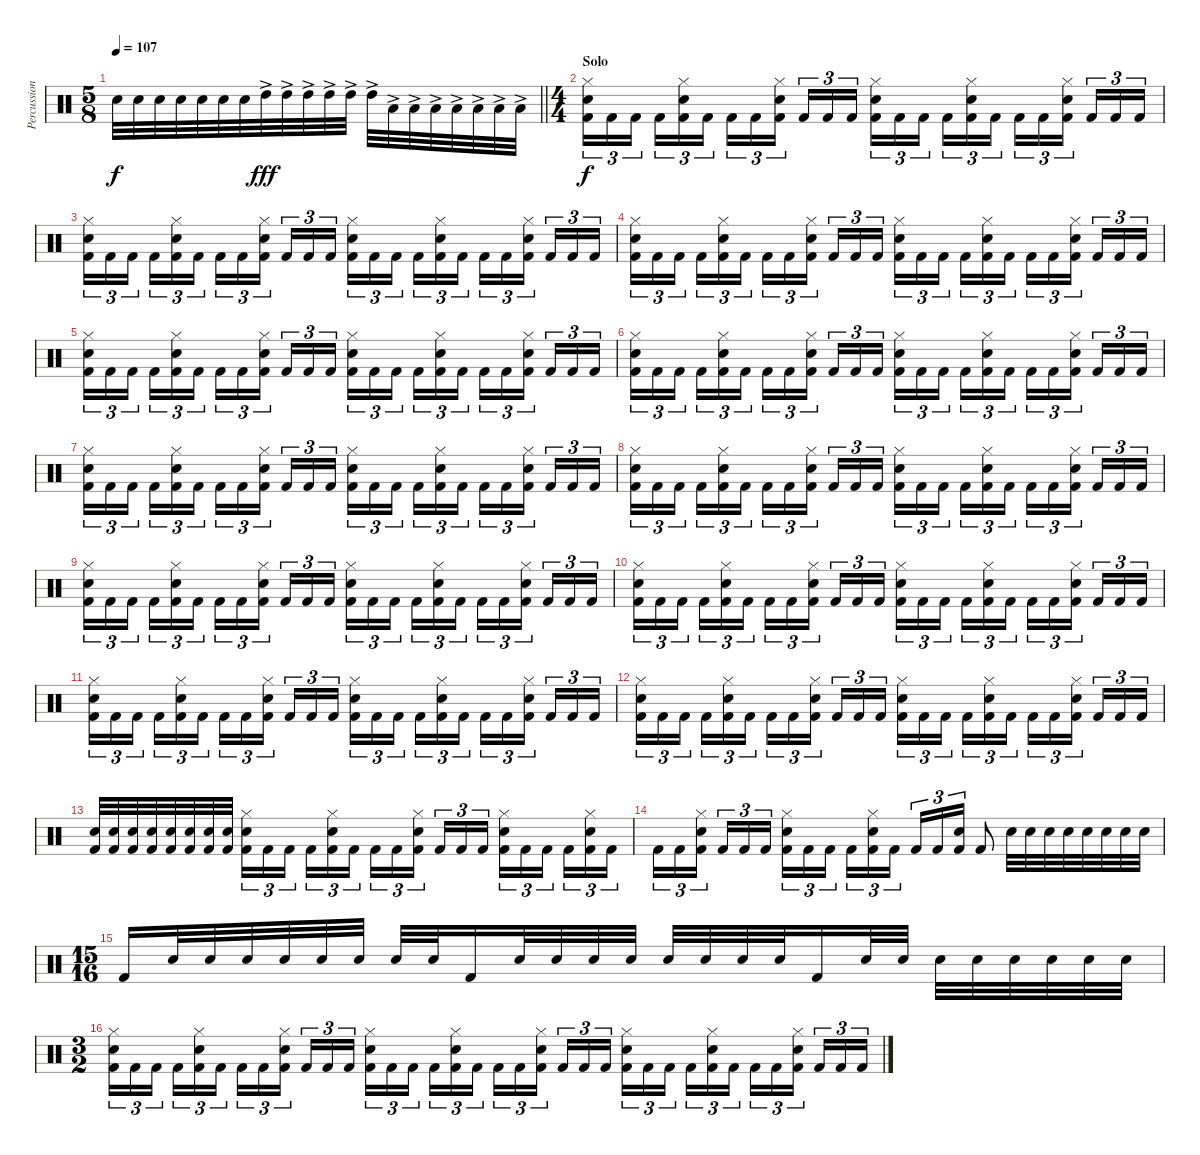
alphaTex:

\track ("Percussion" "Percussion") {instrument percussion}
\staff {score}
\articulation defaults
\ts (5 8)
\tempo 107
\clef neutral
\barLineRight lightlight
\ks c "Electric Snare (hit)".32{dy f} "Electric Snare (hit)".32 "Electric Snare (hit)".32 "Electric Snare (hit)".32 "Electric Snare (hit)".32 "Electric Snare (hit)".32 "Electric Snare (hit)".32 "High Tom (hit)"{ac}.32{dy fff} "High Tom (hit)"{ac}.32 "High Tom (hit)"{ac}.32 "High Tom (hit)"{ac}.32 "High Tom (hit)"{ac}.32 "High Tom (hit)"{ac}.32 "Low Tom (hit)"{ac}.32 "Low Tom (hit)"{ac}.32 "Low Tom (hit)"{ac}.32 "Low Tom (hit)"{ac}.32 "Low Tom (hit)"{ac}.32 "Low Tom (hit)"{ac}.32 "Low Tom (hit)"{ac}.32
|
\ts (4 4)
\section ("" "Solo")
("Kick (hit) 2" "Electric Snare (hit)" "Hi-Hat (closed)").16{tu (3 2) dy f} "Kick (hit) 2".16{tu (3 2)} "Kick (hit) 2".16{tu (3 2) beam splitsecondary} "Kick (hit) 2".16{tu (3 2)} ("Kick (hit) 2" "Electric Snare (hit)" "Hi-Hat (closed)").16{tu (3 2)} "Kick (hit) 2".16{tu (3 2)} "Kick (hit) 2".16{tu (3 2)} "Kick (hit) 2".16{tu (3 2)} ("Kick (hit) 2" "Electric Snare (hit)" "Hi-Hat (closed)").16{tu (3 2) beam splitsecondary} "Kick (hit) 2".16{tu (3 2)} "Kick (hit) 2".16{tu (3 2)} "Kick (hit) 2".16{tu (3 2)} ("Kick (hit) 2" "Electric Snare (hit)" "Hi-Hat (closed)").16{tu (3 2)} "Kick (hit) 2".16{tu (3 2)} "Kick (hit) 2".16{tu (3 2) beam splitsecondary} "Kick (hit) 2".16{tu (3 2)} ("Kick (hit) 2" "Electric Snare (hit)" "Hi-Hat (closed)").16{tu (3 2)} "Kick (hit) 2".16{tu (3 2)} "Kick (hit) 2".16{tu (3 2)} "Kick (hit) 2".16{tu (3 2)} ("Kick (hit) 2" "Electric Snare (hit)" "Hi-Hat (closed)").16{tu (3 2) beam splitsecondary} "Kick (hit) 2".16{tu (3 2)} "Kick (hit) 2".16{tu (3 2)} "Kick (hit) 2".16{tu (3 2)} |
("Kick (hit) 2" "Electric Snare (hit)" "Hi-Hat (closed)").16{tu (3 2)} "Kick (hit) 2".16{tu (3 2)} "Kick (hit) 2".16{tu (3 2) beam splitsecondary} "Kick (hit) 2".16{tu (3 2)} ("Kick (hit) 2" "Electric Snare (hit)" "Hi-Hat (closed)").16{tu (3 2)} "Kick (hit) 2".16{tu (3 2)} "Kick (hit) 2".16{tu (3 2)} "Kick (hit) 2".16{tu (3 2)} ("Kick (hit) 2" "Electric Snare (hit)" "Hi-Hat (closed)").16{tu (3 2) beam splitsecondary} "Kick (hit) 2".16{tu (3 2)} "Kick (hit) 2".16{tu (3 2)} "Kick (hit) 2".16{tu (3 2)} ("Kick (hit) 2" "Electric Snare (hit)" "Hi-Hat (closed)").16{tu (3 2)} "Kick (hit) 2".16{tu (3 2)} "Kick (hit) 2".16{tu (3 2) beam splitsecondary} "Kick (hit) 2".16{tu (3 2)} ("Kick (hit) 2" "Electric Snare (hit)" "Hi-Hat (closed)").16{tu (3 2)} "Kick (hit) 2".16{tu (3 2)} "Kick (hit) 2".16{tu (3 2)} "Kick (hit) 2".16{tu (3 2)} ("Kick (hit) 2" "Electric Snare (hit)" "Hi-Hat (closed)").16{tu (3 2) beam splitsecondary} "Kick (hit) 2".16{tu (3 2)} "Kick (hit) 2".16{tu (3 2)} "Kick (hit) 2".16{tu (3 2)} |
("Kick (hit) 2" "Electric Snare (hit)" "Hi-Hat (closed)").16{tu (3 2)} "Kick (hit) 2".16{tu (3 2)} "Kick (hit) 2".16{tu (3 2) beam splitsecondary} "Kick (hit) 2".16{tu (3 2)} ("Kick (hit) 2" "Electric Snare (hit)" "Hi-Hat (closed)").16{tu (3 2)} "Kick (hit) 2".16{tu (3 2)} "Kick (hit) 2".16{tu (3 2)} "Kick (hit) 2".16{tu (3 2)} ("Kick (hit) 2" "Electric Snare (hit)" "Hi-Hat (closed)").16{tu (3 2) beam splitsecondary} "Kick (hit) 2".16{tu (3 2)} "Kick (hit) 2".16{tu (3 2)} "Kick (hit) 2".16{tu (3 2)} ("Kick (hit) 2" "Electric Snare (hit)" "Hi-Hat (closed)").16{tu (3 2)} "Kick (hit) 2".16{tu (3 2)} "Kick (hit) 2".16{tu (3 2) beam splitsecondary} "Kick (hit) 2".16{tu (3 2)} ("Kick (hit) 2" "Electric Snare (hit)" "Hi-Hat (closed)").16{tu (3 2)} "Kick (hit) 2".16{tu (3 2)} "Kick (hit) 2".16{tu (3 2)} "Kick (hit) 2".16{tu (3 2)} ("Kick (hit) 2" "Electric Snare (hit)" "Hi-Hat (closed)").16{tu (3 2) beam splitsecondary} "Kick (hit) 2".16{tu (3 2)} "Kick (hit) 2".16{tu (3 2)} "Kick (hit) 2".16{tu (3 2)} |
("Kick (hit) 2" "Electric Snare (hit)" "Hi-Hat (closed)").16{tu (3 2)} "Kick (hit) 2".16{tu (3 2)} "Kick (hit) 2".16{tu (3 2) beam splitsecondary} "Kick (hit) 2".16{tu (3 2)} ("Kick (hit) 2" "Electric Snare (hit)" "Hi-Hat (closed)").16{tu (3 2)} "Kick (hit) 2".16{tu (3 2)} "Kick (hit) 2".16{tu (3 2)} "Kick (hit) 2".16{tu (3 2)} ("Kick (hit) 2" "Electric Snare (hit)" "Hi-Hat (closed)").16{tu (3 2) beam splitsecondary} "Kick (hit) 2".16{tu (3 2)} "Kick (hit) 2".16{tu (3 2)} "Kick (hit) 2".16{tu (3 2)} ("Kick (hit) 2" "Electric Snare (hit)" "Hi-Hat (closed)").16{tu (3 2)} "Kick (hit) 2".16{tu (3 2)} "Kick (hit) 2".16{tu (3 2) beam splitsecondary} "Kick (hit) 2".16{tu (3 2)} ("Kick (hit) 2" "Electric Snare (hit)" "Hi-Hat (closed)").16{tu (3 2)} "Kick (hit) 2".16{tu (3 2)} "Kick (hit) 2".16{tu (3 2)} "Kick (hit) 2".16{tu (3 2)} ("Kick (hit) 2" "Electric Snare (hit)" "Hi-Hat (closed)").16{tu (3 2) beam splitsecondary} "Kick (hit) 2".16{tu (3 2)} "Kick (hit) 2".16{tu (3 2)} "Kick (hit) 2".16{tu (3 2)} |
("Kick (hit) 2" "Electric Snare (hit)" "Hi-Hat (closed)").16{tu (3 2)} "Kick (hit) 2".16{tu (3 2)} "Kick (hit) 2".16{tu (3 2) beam splitsecondary} "Kick (hit) 2".16{tu (3 2)} ("Kick (hit) 2" "Electric Snare (hit)" "Hi-Hat (closed)").16{tu (3 2)} "Kick (hit) 2".16{tu (3 2)} "Kick (hit) 2".16{tu (3 2)} "Kick (hit) 2".16{tu (3 2)} ("Kick (hit) 2" "Electric Snare (hit)" "Hi-Hat (closed)").16{tu (3 2) beam splitsecondary} "Kick (hit) 2".16{tu (3 2)} "Kick (hit) 2".16{tu (3 2)} "Kick (hit) 2".16{tu (3 2)} ("Kick (hit) 2" "Electric Snare (hit)" "Hi-Hat (closed)").16{tu (3 2)} "Kick (hit) 2".16{tu (3 2)} "Kick (hit) 2".16{tu (3 2) beam splitsecondary} "Kick (hit) 2".16{tu (3 2)} ("Kick (hit) 2" "Electric Snare (hit)" "Hi-Hat (closed)").16{tu (3 2)} "Kick (hit) 2".16{tu (3 2)} "Kick (hit) 2".16{tu (3 2)} "Kick (hit) 2".16{tu (3 2)} ("Kick (hit) 2" "Electric Snare (hit)" "Hi-Hat (closed)").16{tu (3 2) beam splitsecondary} "Kick (hit) 2".16{tu (3 2)} "Kick (hit) 2".16{tu (3 2)} "Kick (hit) 2".16{tu (3 2)} |
("Kick (hit) 2" "Electric Snare (hit)" "Hi-Hat (closed)").16{tu (3 2)} "Kick (hit) 2".16{tu (3 2)} "Kick (hit) 2".16{tu (3 2) beam splitsecondary} "Kick (hit) 2".16{tu (3 2)} ("Kick (hit) 2" "Electric Snare (hit)" "Hi-Hat (closed)").16{tu (3 2)} "Kick (hit) 2".16{tu (3 2)} "Kick (hit) 2".16{tu (3 2)} "Kick (hit) 2".16{tu (3 2)} ("Kick (hit) 2" "Electric Snare (hit)" "Hi-Hat (closed)").16{tu (3 2) beam splitsecondary} "Kick (hit) 2".16{tu (3 2)} "Kick (hit) 2".16{tu (3 2)} "Kick (hit) 2".16{tu (3 2)} ("Kick (hit) 2" "Electric Snare (hit)" "Hi-Hat (closed)").16{tu (3 2)} "Kick (hit) 2".16{tu (3 2)} "Kick (hit) 2".16{tu (3 2) beam splitsecondary} "Kick (hit) 2".16{tu (3 2)} ("Kick (hit) 2" "Electric Snare (hit)" "Hi-Hat (closed)").16{tu (3 2)} "Kick (hit) 2".16{tu (3 2)} "Kick (hit) 2".16{tu (3 2)} "Kick (hit) 2".16{tu (3 2)} ("Kick (hit) 2" "Electric Snare (hit)" "Hi-Hat (closed)").16{tu (3 2) beam splitsecondary} "Kick (hit) 2".16{tu (3 2)} "Kick (hit) 2".16{tu (3 2)} "Kick (hit) 2".16{tu (3 2)} |
("Kick (hit) 2" "Electric Snare (hit)" "Hi-Hat (closed)").16{tu (3 2)} "Kick (hit) 2".16{tu (3 2)} "Kick (hit) 2".16{tu (3 2) beam splitsecondary} "Kick (hit) 2".16{tu (3 2)} ("Kick (hit) 2" "Electric Snare (hit)" "Hi-Hat (closed)").16{tu (3 2)} "Kick (hit) 2".16{tu (3 2)} "Kick (hit) 2".16{tu (3 2)} "Kick (hit) 2".16{tu (3 2)} ("Kick (hit) 2" "Electric Snare (hit)" "Hi-Hat (closed)").16{tu (3 2) beam splitsecondary} "Kick (hit) 2".16{tu (3 2)} "Kick (hit) 2".16{tu (3 2)} "Kick (hit) 2".16{tu (3 2)} ("Kick (hit) 2" "Electric Snare (hit)" "Hi-Hat (closed)").16{tu (3 2)} "Kick (hit) 2".16{tu (3 2)} "Kick (hit) 2".16{tu (3 2) beam splitsecondary} "Kick (hit) 2".16{tu (3 2)} ("Kick (hit) 2" "Electric Snare (hit)" "Hi-Hat (closed)").16{tu (3 2)} "Kick (hit) 2".16{tu (3 2)} "Kick (hit) 2".16{tu (3 2)} "Kick (hit) 2".16{tu (3 2)} ("Kick (hit) 2" "Electric Snare (hit)" "Hi-Hat (closed)").16{tu (3 2) beam splitsecondary} "Kick (hit) 2".16{tu (3 2)} "Kick (hit) 2".16{tu (3 2)} "Kick (hit) 2".16{tu (3 2)} |
("Kick (hit) 2" "Electric Snare (hit)" "Hi-Hat (closed)").16{tu (3 2)} "Kick (hit) 2".16{tu (3 2)} "Kick (hit) 2".16{tu (3 2) beam splitsecondary} "Kick (hit) 2".16{tu (3 2)} ("Kick (hit) 2" "Electric Snare (hit)" "Hi-Hat (closed)").16{tu (3 2)} "Kick (hit) 2".16{tu (3 2)} "Kick (hit) 2".16{tu (3 2)} "Kick (hit) 2".16{tu (3 2)} ("Kick (hit) 2" "Electric Snare (hit)" "Hi-Hat (closed)").16{tu (3 2) beam splitsecondary} "Kick (hit) 2".16{tu (3 2)} "Kick (hit) 2".16{tu (3 2)} "Kick (hit) 2".16{tu (3 2)} ("Kick (hit) 2" "Electric Snare (hit)" "Hi-Hat (closed)").16{tu (3 2)} "Kick (hit) 2".16{tu (3 2)} "Kick (hit) 2".16{tu (3 2) beam splitsecondary} "Kick (hit) 2".16{tu (3 2)} ("Kick (hit) 2" "Electric Snare (hit)" "Hi-Hat (closed)").16{tu (3 2)} "Kick (hit) 2".16{tu (3 2)} "Kick (hit) 2".16{tu (3 2)} "Kick (hit) 2".16{tu (3 2)} ("Kick (hit) 2" "Electric Snare (hit)" "Hi-Hat (closed)").16{tu (3 2) beam splitsecondary} "Kick (hit) 2".16{tu (3 2)} "Kick (hit) 2".16{tu (3 2)} "Kick (hit) 2".16{tu (3 2)} |
("Kick (hit) 2" "Electric Snare (hit)" "Hi-Hat (closed)").16{tu (3 2)} "Kick (hit) 2".16{tu (3 2)} "Kick (hit) 2".16{tu (3 2) beam splitsecondary} "Kick (hit) 2".16{tu (3 2)} ("Kick (hit) 2" "Electric Snare (hit)" "Hi-Hat (closed)").16{tu (3 2)} "Kick (hit) 2".16{tu (3 2)} "Kick (hit) 2".16{tu (3 2)} "Kick (hit) 2".16{tu (3 2)} ("Kick (hit) 2" "Electric Snare (hit)" "Hi-Hat (closed)").16{tu (3 2) beam splitsecondary} "Kick (hit) 2".16{tu (3 2)} "Kick (hit) 2".16{tu (3 2)} "Kick (hit) 2".16{tu (3 2)} ("Kick (hit) 2" "Electric Snare (hit)" "Hi-Hat (closed)").16{tu (3 2)} "Kick (hit) 2".16{tu (3 2)} "Kick (hit) 2".16{tu (3 2) beam splitsecondary} "Kick (hit) 2".16{tu (3 2)} ("Kick (hit) 2" "Electric Snare (hit)" "Hi-Hat (closed)").16{tu (3 2)} "Kick (hit) 2".16{tu (3 2)} "Kick (hit) 2".16{tu (3 2)} "Kick (hit) 2".16{tu (3 2)} ("Kick (hit) 2" "Electric Snare (hit)" "Hi-Hat (closed)").16{tu (3 2) beam splitsecondary} "Kick (hit) 2".16{tu (3 2)} "Kick (hit) 2".16{tu (3 2)} "Kick (hit) 2".16{tu (3 2)} |
("Kick (hit) 2" "Electric Snare (hit)" "Hi-Hat (closed)").16{tu (3 2)} "Kick (hit) 2".16{tu (3 2)} "Kick (hit) 2".16{tu (3 2) beam splitsecondary} "Kick (hit) 2".16{tu (3 2)} ("Kick (hit) 2" "Electric Snare (hit)" "Hi-Hat (closed)").16{tu (3 2)} "Kick (hit) 2".16{tu (3 2)} "Kick (hit) 2".16{tu (3 2)} "Kick (hit) 2".16{tu (3 2)} ("Kick (hit) 2" "Electric Snare (hit)" "Hi-Hat (closed)").16{tu (3 2) beam splitsecondary} "Kick (hit) 2".16{tu (3 2)} "Kick (hit) 2".16{tu (3 2)} "Kick (hit) 2".16{tu (3 2)} ("Kick (hit) 2" "Electric Snare (hit)" "Hi-Hat (closed)").16{tu (3 2)} "Kick (hit) 2".16{tu (3 2)} "Kick (hit) 2".16{tu (3 2) beam splitsecondary} "Kick (hit) 2".16{tu (3 2)} ("Kick (hit) 2" "Electric Snare (hit)" "Hi-Hat (closed)").16{tu (3 2)} "Kick (hit) 2".16{tu (3 2)} "Kick (hit) 2".16{tu (3 2)} "Kick (hit) 2".16{tu (3 2)} ("Kick (hit) 2" "Electric Snare (hit)" "Hi-Hat (closed)").16{tu (3 2) beam splitsecondary} "Kick (hit) 2".16{tu (3 2)} "Kick (hit) 2".16{tu (3 2)} "Kick (hit) 2".16{tu (3 2)} |
("Kick (hit) 2" "Electric Snare (hit)" "Hi-Hat (closed)").16{tu (3 2)} "Kick (hit) 2".16{tu (3 2)} "Kick (hit) 2".16{tu (3 2) beam splitsecondary} "Kick (hit) 2".16{tu (3 2)} ("Kick (hit) 2" "Electric Snare (hit)" "Hi-Hat (closed)").16{tu (3 2)} "Kick (hit) 2".16{tu (3 2)} "Kick (hit) 2".16{tu (3 2)} "Kick (hit) 2".16{tu (3 2)} ("Kick (hit) 2" "Electric Snare (hit)" "Hi-Hat (closed)").16{tu (3 2) beam splitsecondary} "Kick (hit) 2".16{tu (3 2)} "Kick (hit) 2".16{tu (3 2)} "Kick (hit) 2".16{tu (3 2)} ("Kick (hit) 2" "Electric Snare (hit)" "Hi-Hat (closed)").16{tu (3 2)} "Kick (hit) 2".16{tu (3 2)} "Kick (hit) 2".16{tu (3 2) beam splitsecondary} "Kick (hit) 2".16{tu (3 2)} ("Kick (hit) 2" "Electric Snare (hit)" "Hi-Hat (closed)").16{tu (3 2)} "Kick (hit) 2".16{tu (3 2)} "Kick (hit) 2".16{tu (3 2)} "Kick (hit) 2".16{tu (3 2)} ("Kick (hit) 2" "Electric Snare (hit)" "Hi-Hat (closed)").16{tu (3 2) beam splitsecondary} "Kick (hit) 2".16{tu (3 2)} "Kick (hit) 2".16{tu (3 2)} "Kick (hit) 2".16{tu (3 2)} |
("Kick (hit) 2" "Electric Snare (hit)").32 ("Kick (hit) 2" "Electric Snare (hit)").32 ("Kick (hit) 2" "Electric Snare (hit)").32 ("Kick (hit) 2" "Electric Snare (hit)").32 ("Kick (hit) 2" "Electric Snare (hit)").32 ("Kick (hit) 2" "Electric Snare (hit)").32 ("Kick (hit) 2" "Electric Snare (hit)").32 ("Kick (hit) 2" "Electric Snare (hit)").32 ("Kick (hit) 2" "Electric Snare (hit)" "Hi-Hat (closed)").16{tu (3 2)} "Kick (hit) 2".16{tu (3 2)} "Kick (hit) 2".16{tu (3 2) beam splitsecondary} "Kick (hit) 2".16{tu (3 2)} ("Kick (hit) 2" "Electric Snare (hit)" "Hi-Hat (closed)").16{tu (3 2)} "Kick (hit) 2".16{tu (3 2)} "Kick (hit) 2".16{tu (3 2)} "Kick (hit) 2".16{tu (3 2)} ("Kick (hit) 2" "Electric Snare (hit)" "Hi-Hat (closed)").16{tu (3 2) beam splitsecondary} "Kick (hit) 2".16{tu (3 2)} "Kick (hit) 2".16{tu (3 2)} "Kick (hit) 2".16{tu (3 2)} ("Kick (hit) 2" "Electric Snare (hit)" "Hi-Hat (closed)").16{tu (3 2)} "Kick (hit) 2".16{tu (3 2)} "Kick (hit) 2".16{tu (3 2) beam splitsecondary} "Kick (hit) 2".16{tu (3 2)} ("Kick (hit) 2" "Electric Snare (hit)" "Hi-Hat (closed)").16{tu (3 2)} "Kick (hit) 2".16{tu (3 2)} |
"Kick (hit) 2".16{tu (3 2)} "Kick (hit) 2".16{tu (3 2)} ("Kick (hit) 2" "Electric Snare (hit)" "Hi-Hat (closed)").16{tu (3 2) beam splitsecondary} "Kick (hit) 2".16{tu (3 2)} "Kick (hit) 2".16{tu (3 2)} "Kick (hit) 2".16{tu (3 2)} ("Kick (hit) 2" "Electric Snare (hit)" "Hi-Hat (closed)").16{tu (3 2)} "Kick (hit) 2".16{tu (3 2)} "Kick (hit) 2".16{tu (3 2) beam splitsecondary} "Kick (hit) 2".16{tu (3 2)} ("Kick (hit) 2" "Electric Snare (hit)" "Hi-Hat (closed)").16{tu (3 2)} "Kick (hit) 2".16{tu (3 2)} "Kick (hit) 2".16{tu (3 2)} "Kick (hit) 2".16{tu (3 2)} ("Kick (hit) 2" "Electric Snare (hit)").16{tu (3 2)} "Kick (hit) 2".8 "Electric Snare (hit)".32 "Electric Snare (hit)".32 "Electric Snare (hit)".32 "Electric Snare (hit)".32 "Electric Snare (hit)".32 "Electric Snare (hit)".32 "Electric Snare (hit)".32 "Electric Snare (hit)".32 |
\ts (15 16)
"Kick (hit) 2".16 "Electric Snare (hit)".32 "Electric Snare (hit)".32 "Electric Snare (hit)".32 "Electric Snare (hit)".32 "Electric Snare (hit)".32 "Electric Snare (hit)".32 "Electric Snare (hit)".32 "Electric Snare (hit)".32 "Kick (hit) 2".16 "Electric Snare (hit)".32 "Electric Snare (hit)".32 "Electric Snare (hit)".32 "Electric Snare (hit)".32 "Electric Snare (hit)".32 "Electric Snare (hit)".32 "Electric Snare (hit)".32 "Electric Snare (hit)".32 "Kick (hit) 2".16 "Electric Snare (hit)".32 "Electric Snare (hit)".32 "Electric Snare (hit)".32 "Electric Snare (hit)".32 "Electric Snare (hit)".32 "Electric Snare (hit)".32 "Electric Snare (hit)".32 "Electric Snare (hit)".32 |
\ts (3 2)
("Kick (hit) 2" "Electric Snare (hit)" "Hi-Hat (closed)").16{tu (3 2)} "Kick (hit) 2".16{tu (3 2)} "Kick (hit) 2".16{tu (3 2) beam splitsecondary} "Kick (hit) 2".16{tu (3 2)} ("Kick (hit) 2" "Electric Snare (hit)" "Hi-Hat (closed)").16{tu (3 2)} "Kick (hit) 2".16{tu (3 2) beam splitsecondary} "Kick (hit) 2".16{tu (3 2)} "Kick (hit) 2".16{tu (3 2)} ("Kick (hit) 2" "Electric Snare (hit)" "Hi-Hat (closed)").16{tu (3 2) beam splitsecondary} "Kick (hit) 2".16{tu (3 2)} "Kick (hit) 2".16{tu (3 2)} "Kick (hit) 2".16{tu (3 2)} ("Kick (hit) 2" "Electric Snare (hit)" "Hi-Hat (closed)").16{tu (3 2)} "Kick (hit) 2".16{tu (3 2)} "Kick (hit) 2".16{tu (3 2) beam splitsecondary} "Kick (hit) 2".16{tu (3 2)} ("Kick (hit) 2" "Electric Snare (hit)" "Hi-Hat (closed)").16{tu (3 2)} "Kick (hit) 2".16{tu (3 2) beam splitsecondary} "Kick (hit) 2".16{tu (3 2)} "Kick (hit) 2".16{tu (3 2)} ("Kick (hit) 2" "Electric Snare (hit)" "Hi-Hat (closed)").16{tu (3 2) beam splitsecondary} "Kick (hit) 2".16{tu (3 2)} "Kick (hit) 2".16{tu (3 2)} "Kick (hit) 2".16{tu (3 2)} ("Kick (hit) 2" "Electric Snare (hit)" "Hi-Hat (closed)").16{tu (3 2)} "Kick (hit) 2".16{tu (3 2)} "Kick (hit) 2".16{tu (3 2) beam splitsecondary} "Kick (hit) 2".16{tu (3 2)} ("Kick (hit) 2" "Electric Snare (hit)" "Hi-Hat (closed)").16{tu (3 2)} "Kick (hit) 2".16{tu (3 2) beam splitsecondary} "Kick (hit) 2".16{tu (3 2)} "Kick (hit) 2".16{tu (3 2)} ("Kick (hit) 2" "Electric Snare (hit)" "Hi-Hat (closed)").16{tu (3 2) beam splitsecondary} "Kick (hit) 2".16{tu (3 2)} "Kick (hit) 2".16{tu (3 2)} "Kick (hit) 2".16{tu (3 2)}
